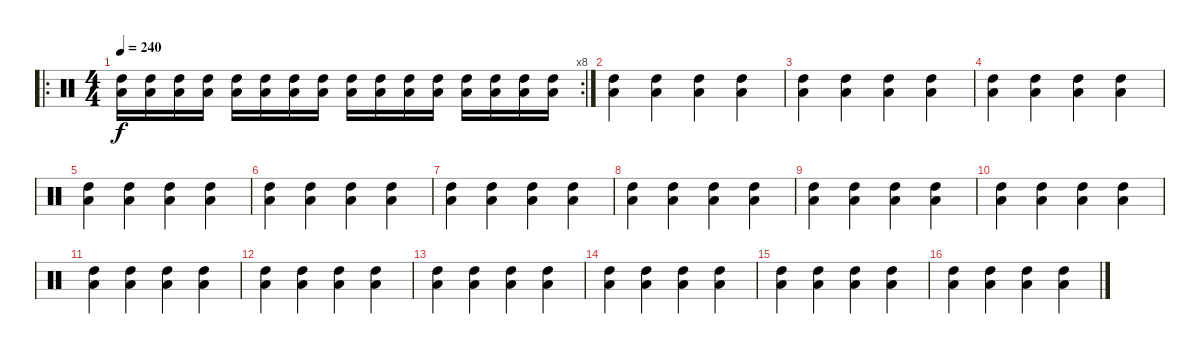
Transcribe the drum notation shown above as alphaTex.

\track "" {instrument percussion}
\staff {score}
\articulation defaults
\ro
\rc 8
\ts (4 4)
\tempo 240
\clef neutral
\ks c
("High Tom (hit)" "Low Floor Tom (hit)").16{dy f} ("High Tom (hit)" "Low Floor Tom (hit)").16 ("High Tom (hit)" "Low Floor Tom (hit)").16 ("High Tom (hit)" "Low Floor Tom (hit)").16 ("High Tom (hit)" "Low Floor Tom (hit)").16 ("High Tom (hit)" "Low Floor Tom (hit)").16 ("High Tom (hit)" "Low Floor Tom (hit)").16 ("High Tom (hit)" "Low Floor Tom (hit)").16 ("High Tom (hit)" "Low Floor Tom (hit)").16 ("High Tom (hit)" "Low Floor Tom (hit)").16 ("High Tom (hit)" "Low Floor Tom (hit)").16 ("High Tom (hit)" "Low Floor Tom (hit)").16 ("High Tom (hit)" "Low Floor Tom (hit)").16 ("High Tom (hit)" "Low Floor Tom (hit)").16 ("High Tom (hit)" "Low Floor Tom (hit)").16 ("High Tom (hit)" "Low Floor Tom (hit)").16 |
("High Tom (hit)" "Low Floor Tom (hit)").4 ("High Tom (hit)" "Low Floor Tom (hit)").4 ("High Tom (hit)" "Low Floor Tom (hit)").4 ("High Tom (hit)" "Low Floor Tom (hit)").4 |
("High Tom (hit)" "Low Floor Tom (hit)").4 ("High Tom (hit)" "Low Floor Tom (hit)").4 ("High Tom (hit)" "Low Floor Tom (hit)").4 ("High Tom (hit)" "Low Floor Tom (hit)").4 |
("High Tom (hit)" "Low Floor Tom (hit)").4 ("High Tom (hit)" "Low Floor Tom (hit)").4 ("High Tom (hit)" "Low Floor Tom (hit)").4 ("High Tom (hit)" "Low Floor Tom (hit)").4 |
("High Tom (hit)" "Low Floor Tom (hit)").4 ("High Tom (hit)" "Low Floor Tom (hit)").4 ("High Tom (hit)" "Low Floor Tom (hit)").4 ("High Tom (hit)" "Low Floor Tom (hit)").4 |
("High Tom (hit)" "Low Floor Tom (hit)").4 ("High Tom (hit)" "Low Floor Tom (hit)").4 ("High Tom (hit)" "Low Floor Tom (hit)").4 ("High Tom (hit)" "Low Floor Tom (hit)").4 |
("High Tom (hit)" "Low Floor Tom (hit)").4 ("High Tom (hit)" "Low Floor Tom (hit)").4 ("High Tom (hit)" "Low Floor Tom (hit)").4 ("High Tom (hit)" "Low Floor Tom (hit)").4 |
("High Tom (hit)" "Low Floor Tom (hit)").4 ("High Tom (hit)" "Low Floor Tom (hit)").4 ("High Tom (hit)" "Low Floor Tom (hit)").4 ("High Tom (hit)" "Low Floor Tom (hit)").4 |
("High Tom (hit)" "Low Floor Tom (hit)").4 ("High Tom (hit)" "Low Floor Tom (hit)").4 ("High Tom (hit)" "Low Floor Tom (hit)").4 ("High Tom (hit)" "Low Floor Tom (hit)").4 |
("High Tom (hit)" "Low Floor Tom (hit)").4 ("High Tom (hit)" "Low Floor Tom (hit)").4 ("High Tom (hit)" "Low Floor Tom (hit)").4 ("High Tom (hit)" "Low Floor Tom (hit)").4 |
("High Tom (hit)" "Low Floor Tom (hit)").4 ("High Tom (hit)" "Low Floor Tom (hit)").4 ("High Tom (hit)" "Low Floor Tom (hit)").4 ("High Tom (hit)" "Low Floor Tom (hit)").4 |
("High Tom (hit)" "Low Floor Tom (hit)").4 ("High Tom (hit)" "Low Floor Tom (hit)").4 ("High Tom (hit)" "Low Floor Tom (hit)").4 ("High Tom (hit)" "Low Floor Tom (hit)").4 |
("High Tom (hit)" "Low Floor Tom (hit)").4 ("High Tom (hit)" "Low Floor Tom (hit)").4 ("High Tom (hit)" "Low Floor Tom (hit)").4 ("High Tom (hit)" "Low Floor Tom (hit)").4 |
("High Tom (hit)" "Low Floor Tom (hit)").4 ("High Tom (hit)" "Low Floor Tom (hit)").4 ("High Tom (hit)" "Low Floor Tom (hit)").4 ("High Tom (hit)" "Low Floor Tom (hit)").4 |
("High Tom (hit)" "Low Floor Tom (hit)").4 ("High Tom (hit)" "Low Floor Tom (hit)").4 ("High Tom (hit)" "Low Floor Tom (hit)").4 ("High Tom (hit)" "Low Floor Tom (hit)").4 |
("High Tom (hit)" "Low Floor Tom (hit)").4 ("High Tom (hit)" "Low Floor Tom (hit)").4 ("High Tom (hit)" "Low Floor Tom (hit)").4 ("High Tom (hit)" "Low Floor Tom (hit)").4
